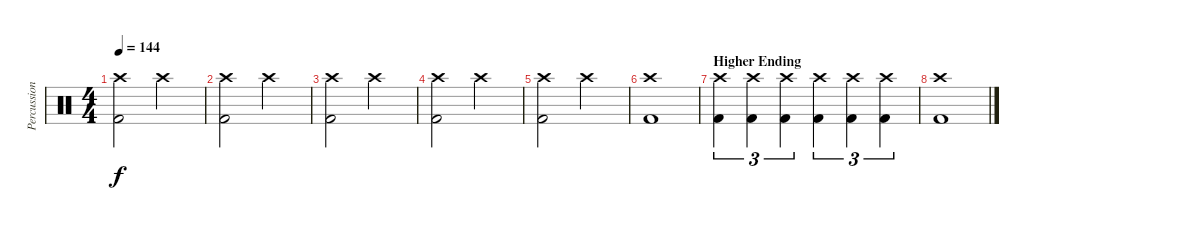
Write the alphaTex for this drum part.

\track ("Percussion" "Percussion") {instrument percussion}
\staff {score}
\articulation defaults
\ts (4 4)
\tempo 144
\clef neutral
\ks c
("Crash high (hit)" "Kick (hit) 2").2{dy f} "Crash high (hit)".2 |
("Crash high (hit)" "Kick (hit) 2").2 "Crash high (hit)".2 |
("Crash high (hit)" "Kick (hit) 2").2 "Crash high (hit)".2 |
("Crash high (hit)" "Kick (hit) 2").2 "Crash high (hit)".2 |
("Crash high (hit)" "Kick (hit) 2").2 "Crash high (hit)".2 |
("Crash high (hit)" "Kick (hit) 2").1 |
\section ("" "Higher Ending")
("Crash high (hit)" "Kick (hit) 2").4{tu (3 2)} ("Crash high (hit)" "Kick (hit) 2").4{tu (3 2)} ("Crash high (hit)" "Kick (hit) 2").4{tu (3 2)} ("Crash high (hit)" "Kick (hit) 2").4{tu (3 2)} ("Crash high (hit)" "Kick (hit) 2").4{tu (3 2)} ("Crash high (hit)" "Kick (hit) 2").4{tu (3 2)} |
("Kick (hit) 2" "Crash high (hit)").1
